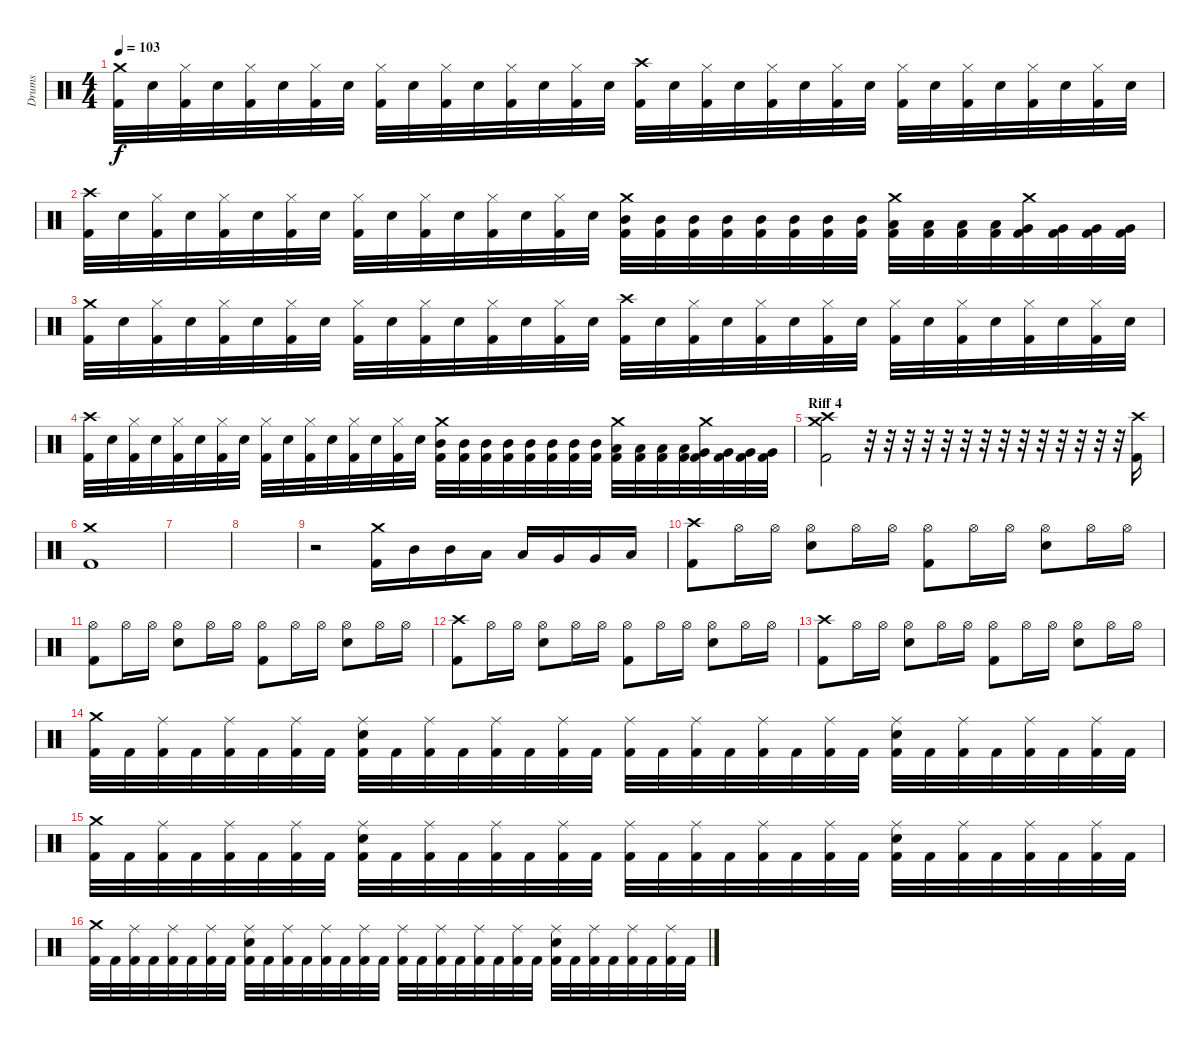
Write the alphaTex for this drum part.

\track ("Drums" "Drums") {instrument percussion}
\staff {score}
\articulation defaults
\ts (4 4)
\tempo 103
\clef neutral
\ks c
("Crash medium (hit)" "Kick (hit) 2").32{dy f} "Electric Snare (hit)".32 ("Hi-Hat (closed)" "Kick (hit) 2").32 "Electric Snare (hit)".32 ("Hi-Hat (closed)" "Kick (hit) 2").32 "Electric Snare (hit)".32 ("Hi-Hat (closed)" "Kick (hit) 2").32 "Electric Snare (hit)".32 ("Hi-Hat (closed)" "Kick (hit) 2").32 "Electric Snare (hit)".32 ("Hi-Hat (closed)" "Kick (hit) 2").32 "Electric Snare (hit)".32 ("Hi-Hat (closed)" "Kick (hit) 2").32 "Electric Snare (hit)".32 ("Hi-Hat (closed)" "Kick (hit) 2").32 "Electric Snare (hit)".32 ("Crash high (hit)" "Kick (hit) 2").32 "Electric Snare (hit)".32 ("Hi-Hat (closed)" "Kick (hit) 2").32 "Electric Snare (hit)".32 ("Hi-Hat (closed)" "Kick (hit) 2").32 "Electric Snare (hit)".32 ("Hi-Hat (closed)" "Kick (hit) 2").32 "Electric Snare (hit)".32 ("Hi-Hat (closed)" "Kick (hit) 2").32 "Electric Snare (hit)".32 ("Hi-Hat (closed)" "Kick (hit) 2").32 "Electric Snare (hit)".32 ("Hi-Hat (closed)" "Kick (hit) 2").32 "Electric Snare (hit)".32 ("Hi-Hat (closed)" "Kick (hit) 2").32 "Electric Snare (hit)".32 |
("Crash high (hit)" "Kick (hit) 2").32 "Electric Snare (hit)".32 ("Hi-Hat (closed)" "Kick (hit) 2").32 "Electric Snare (hit)".32 ("Hi-Hat (closed)" "Kick (hit) 2").32 "Electric Snare (hit)".32 ("Hi-Hat (closed)" "Kick (hit) 2").32 "Electric Snare (hit)".32 ("Hi-Hat (closed)" "Kick (hit) 2").32 "Electric Snare (hit)".32 ("Hi-Hat (closed)" "Kick (hit) 2").32 "Electric Snare (hit)".32 ("Hi-Hat (closed)" "Kick (hit) 2").32 "Electric Snare (hit)".32 ("Hi-Hat (closed)" "Kick (hit) 2").32 "Electric Snare (hit)".32 ("Crash medium (hit)" "Mid Tom (hit)" "Kick (hit) 2").32 ("Mid Tom (hit)" "Kick (hit) 2").32 ("Mid Tom (hit)" "Kick (hit) 2").32 ("Mid Tom (hit)" "Kick (hit) 2").32 ("Mid Tom (hit)" "Kick (hit) 2").32 ("Mid Tom (hit)" "Kick (hit) 2").32 ("Mid Tom (hit)" "Kick (hit) 2").32 ("Mid Tom (hit)" "Kick (hit) 2").32 ("Crash medium (hit)" "Low Tom (hit)" "Kick (hit) 2").32 ("Low Tom (hit)" "Kick (hit) 2").32 ("Low Tom (hit)" "Kick (hit) 2").32 ("Low Tom (hit)" "Kick (hit) 2").32 ("Crash medium (hit)" "Very Low Tom (hit)" "Kick (hit) 2").32 ("Very Low Tom (hit)" "Kick (hit) 2").32 ("Very Low Tom (hit)" "Kick (hit) 2").32 ("Very Low Tom (hit)" "Kick (hit) 2").32 |
("Crash medium (hit)" "Kick (hit) 2").32 "Electric Snare (hit)".32 ("Hi-Hat (closed)" "Kick (hit) 2").32 "Electric Snare (hit)".32 ("Hi-Hat (closed)" "Kick (hit) 2").32 "Electric Snare (hit)".32 ("Hi-Hat (closed)" "Kick (hit) 2").32 "Electric Snare (hit)".32 ("Hi-Hat (closed)" "Kick (hit) 2").32 "Electric Snare (hit)".32 ("Hi-Hat (closed)" "Kick (hit) 2").32 "Electric Snare (hit)".32 ("Hi-Hat (closed)" "Kick (hit) 2").32 "Electric Snare (hit)".32 ("Hi-Hat (closed)" "Kick (hit) 2").32 "Electric Snare (hit)".32 ("Crash high (hit)" "Kick (hit) 2").32 "Electric Snare (hit)".32 ("Hi-Hat (closed)" "Kick (hit) 2").32 "Electric Snare (hit)".32 ("Hi-Hat (closed)" "Kick (hit) 2").32 "Electric Snare (hit)".32 ("Hi-Hat (closed)" "Kick (hit) 2").32 "Electric Snare (hit)".32 ("Hi-Hat (closed)" "Kick (hit) 2").32 "Electric Snare (hit)".32 ("Hi-Hat (closed)" "Kick (hit) 2").32 "Electric Snare (hit)".32 ("Hi-Hat (closed)" "Kick (hit) 2").32 "Electric Snare (hit)".32 ("Hi-Hat (closed)" "Kick (hit) 2").32 "Electric Snare (hit)".32 |
("Crash high (hit)" "Kick (hit) 2").32 "Electric Snare (hit)".32 ("Hi-Hat (closed)" "Kick (hit) 2").32 "Electric Snare (hit)".32 ("Hi-Hat (closed)" "Kick (hit) 2").32 "Electric Snare (hit)".32 ("Hi-Hat (closed)" "Kick (hit) 2").32 "Electric Snare (hit)".32 ("Hi-Hat (closed)" "Kick (hit) 2").32 "Electric Snare (hit)".32 ("Hi-Hat (closed)" "Kick (hit) 2").32 "Electric Snare (hit)".32 ("Hi-Hat (closed)" "Kick (hit) 2").32 "Electric Snare (hit)".32 ("Hi-Hat (closed)" "Kick (hit) 2").32 "Electric Snare (hit)".32 ("Crash medium (hit)" "Mid Tom (hit)" "Kick (hit) 2").32 ("Mid Tom (hit)" "Kick (hit) 2").32 ("Mid Tom (hit)" "Kick (hit) 2").32 ("Mid Tom (hit)" "Kick (hit) 2").32 ("Mid Tom (hit)" "Kick (hit) 2").32 ("Mid Tom (hit)" "Kick (hit) 2").32 ("Mid Tom (hit)" "Kick (hit) 2").32 ("Mid Tom (hit)" "Kick (hit) 2").32 ("Crash medium (hit)" "Low Tom (hit)" "Kick (hit) 2").32 ("Low Tom (hit)" "Kick (hit) 2").32 ("Low Tom (hit)" "Kick (hit) 2").32 ("Low Tom (hit)" "Kick (hit) 2").32 ("Crash medium (hit)" "Very Low Tom (hit)" "Kick (hit) 2").32 ("Very Low Tom (hit)" "Kick (hit) 2").32 ("Very Low Tom (hit)" "Kick (hit) 2").32 ("Very Low Tom (hit)" "Kick (hit) 2").32 |
\section ("" "Riff 4")
("Crash high (hit)" "Crash medium (hit)" "Kick (hit) 2").2 r.32 r.32 r.32 r.32 r.32 r.32 r.32 r.32 r.32 r.32 r.32 r.32 r.32 r.32 ("Crash high (hit)" "Kick (hit) 2").16 |
("Crash medium (hit)" "Kick (hit) 2").1 |
|
|
r.2 ("Crash medium (hit)" "Kick (hit) 2").16 "Mid Tom (hit)".16 "Mid Tom (hit)".16 "Low Tom (hit)".16 "Low Tom (hit)".16 "Very Low Tom (hit)".16 "Very Low Tom (hit)".16 "Low Floor Tom (hit)".16 |
("Crash high (hit)" "Kick (hit) 2").8 "Hi-Hat (open)".16 "Hi-Hat (open)".16 ("Hi-Hat (open)" "Electric Snare (hit)").8 "Hi-Hat (open)".16 "Hi-Hat (open)".16 ("Hi-Hat (open)" "Kick (hit) 2").8 "Hi-Hat (open)".16 "Hi-Hat (open)".16 ("Hi-Hat (open)" "Electric Snare (hit)").8 "Hi-Hat (open)".16 "Hi-Hat (open)".16 |
("Hi-Hat (open)" "Kick (hit) 2").8 "Hi-Hat (open)".16 "Hi-Hat (open)".16 ("Hi-Hat (open)" "Electric Snare (hit)").8 "Hi-Hat (open)".16 "Hi-Hat (open)".16 ("Hi-Hat (open)" "Kick (hit) 2").8 "Hi-Hat (open)".16 "Hi-Hat (open)".16 ("Hi-Hat (open)" "Electric Snare (hit)").8 "Hi-Hat (open)".16 "Hi-Hat (open)".16 |
("Crash high (hit)" "Kick (hit) 2").8 "Hi-Hat (open)".16 "Hi-Hat (open)".16 ("Hi-Hat (open)" "Electric Snare (hit)").8 "Hi-Hat (open)".16 "Hi-Hat (open)".16 ("Hi-Hat (open)" "Kick (hit) 2").8 "Hi-Hat (open)".16 "Hi-Hat (open)".16 ("Hi-Hat (open)" "Electric Snare (hit)").8 "Hi-Hat (open)".16 "Hi-Hat (open)".16 |
("Crash high (hit)" "Kick (hit) 2").8 "Hi-Hat (open)".16 "Hi-Hat (open)".16 ("Hi-Hat (open)" "Electric Snare (hit)").8 "Hi-Hat (open)".16 "Hi-Hat (open)".16 ("Hi-Hat (open)" "Kick (hit) 2").8 "Hi-Hat (open)".16 "Hi-Hat (open)".16 ("Hi-Hat (open)" "Electric Snare (hit)").8 "Hi-Hat (open)".16 "Hi-Hat (open)".16 |
("Crash medium (hit)" "Kick (hit) 2").32 "Kick (hit) 2".32 ("Ride (middle)" "Kick (hit) 2").32 "Kick (hit) 2".32 ("Ride (middle)" "Kick (hit) 2").32 "Kick (hit) 2".32 ("Ride (middle)" "Kick (hit) 2").32 "Kick (hit) 2".32 ("Ride (middle)" "Electric Snare (hit)" "Kick (hit) 2").32 "Kick (hit) 2".32 ("Ride (middle)" "Kick (hit) 2").32 "Kick (hit) 2".32 ("Ride (middle)" "Kick (hit) 2").32 "Kick (hit) 2".32 ("Ride (middle)" "Kick (hit) 2").32 "Kick (hit) 2".32 ("Ride (middle)" "Kick (hit) 2").32 "Kick (hit) 2".32 ("Ride (middle)" "Kick (hit) 2").32 "Kick (hit) 2".32 ("Ride (middle)" "Kick (hit) 2").32 "Kick (hit) 2".32 ("Ride (middle)" "Kick (hit) 2").32 "Kick (hit) 2".32 ("Ride (middle)" "Electric Snare (hit)" "Kick (hit) 2").32 "Kick (hit) 2".32 ("Ride (middle)" "Kick (hit) 2").32 "Kick (hit) 2".32 ("Ride (middle)" "Kick (hit) 2").32 "Kick (hit) 2".32 ("Ride (middle)" "Kick (hit) 2").32 "Kick (hit) 2".32 |
("Crash medium (hit)" "Kick (hit) 2").32 "Kick (hit) 2".32 ("Ride (middle)" "Kick (hit) 2").32 "Kick (hit) 2".32 ("Ride (middle)" "Kick (hit) 2").32 "Kick (hit) 2".32 ("Ride (middle)" "Kick (hit) 2").32 "Kick (hit) 2".32 ("Ride (middle)" "Electric Snare (hit)" "Kick (hit) 2").32 "Kick (hit) 2".32 ("Ride (middle)" "Kick (hit) 2").32 "Kick (hit) 2".32 ("Ride (middle)" "Kick (hit) 2").32 "Kick (hit) 2".32 ("Ride (middle)" "Kick (hit) 2").32 "Kick (hit) 2".32 ("Ride (middle)" "Kick (hit) 2").32 "Kick (hit) 2".32 ("Ride (middle)" "Kick (hit) 2").32 "Kick (hit) 2".32 ("Ride (middle)" "Kick (hit) 2").32 "Kick (hit) 2".32 ("Ride (middle)" "Kick (hit) 2").32 "Kick (hit) 2".32 ("Ride (middle)" "Electric Snare (hit)" "Kick (hit) 2").32 "Kick (hit) 2".32 ("Ride (middle)" "Kick (hit) 2").32 "Kick (hit) 2".32 ("Ride (middle)" "Kick (hit) 2").32 "Kick (hit) 2".32 ("Ride (middle)" "Kick (hit) 2").32 "Kick (hit) 2".32 |
("Crash medium (hit)" "Kick (hit) 2").32 "Kick (hit) 2".32 ("Ride (middle)" "Kick (hit) 2").32 "Kick (hit) 2".32 ("Ride (middle)" "Kick (hit) 2").32 "Kick (hit) 2".32 ("Ride (middle)" "Kick (hit) 2").32 "Kick (hit) 2".32 ("Ride (middle)" "Electric Snare (hit)" "Kick (hit) 2").32 "Kick (hit) 2".32 ("Ride (middle)" "Kick (hit) 2").32 "Kick (hit) 2".32 ("Ride (middle)" "Kick (hit) 2").32 "Kick (hit) 2".32 ("Ride (middle)" "Kick (hit) 2").32 "Kick (hit) 2".32 ("Ride (middle)" "Kick (hit) 2").32 "Kick (hit) 2".32 ("Ride (middle)" "Kick (hit) 2").32 "Kick (hit) 2".32 ("Ride (middle)" "Kick (hit) 2").32 "Kick (hit) 2".32 ("Ride (middle)" "Kick (hit) 2").32 "Kick (hit) 2".32 ("Ride (middle)" "Electric Snare (hit)" "Kick (hit) 2").32 "Kick (hit) 2".32 ("Ride (middle)" "Kick (hit) 2").32 "Kick (hit) 2".32 ("Ride (middle)" "Kick (hit) 2").32 "Kick (hit) 2".32 ("Ride (middle)" "Kick (hit) 2").32 "Kick (hit) 2".32
